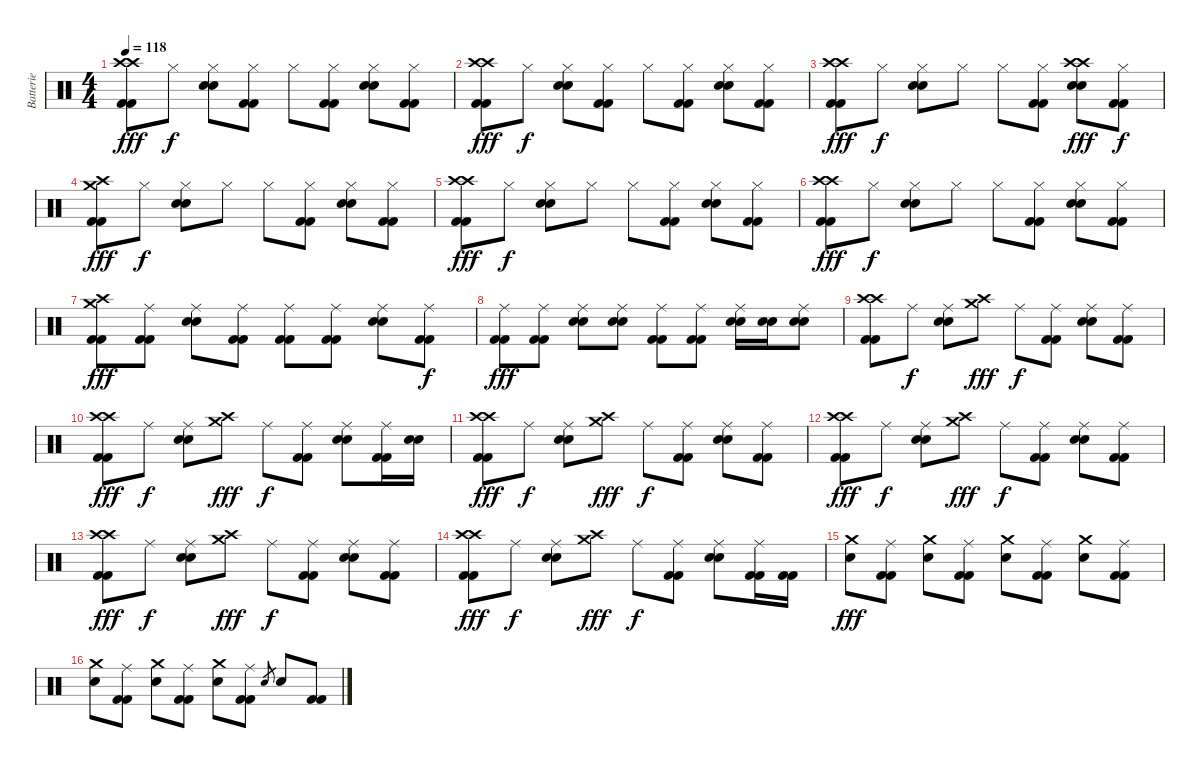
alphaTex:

\track ("Batterie" "Batterie") {instrument percussion}
\staff {score}
\articulation defaults
\ts (4 4)
\tempo 118
\clef neutral
\ks c
("Crash high (hit)" "Crash high (hit)" "Kick (hit) 2" "Kick (hit) 2").8{dy fff} "Hi-Hat (closed)".8{dy f} ("Hi-Hat (closed)" "Snare (hit) 2" "Snare (hit) 2").8 ("Hi-Hat (closed)" "Kick (hit) 2" "Kick (hit) 2").8 "Hi-Hat (closed)".8 ("Hi-Hat (closed)" "Kick (hit) 2" "Kick (hit) 2").8 ("Hi-Hat (closed)" "Snare (hit) 2" "Snare (hit) 2").8 ("Hi-Hat (closed)" "Kick (hit) 2" "Kick (hit) 2").8 |
("Crash high (hit)" "Crash high (hit)" "Kick (hit) 2" "Kick (hit) 2").8{dy fff} "Hi-Hat (closed)".8{dy f} ("Hi-Hat (closed)" "Snare (hit) 2" "Snare (hit) 2").8 ("Hi-Hat (closed)" "Kick (hit) 2" "Kick (hit) 2").8 "Hi-Hat (closed)".8 ("Hi-Hat (closed)" "Kick (hit) 2" "Kick (hit) 2").8 ("Hi-Hat (closed)" "Snare (hit) 2" "Snare (hit) 2").8 ("Hi-Hat (closed)" "Kick (hit) 2" "Kick (hit) 2").8 |
("Crash high (hit)" "Crash high (hit)" "Kick (hit) 2" "Kick (hit) 2").8{dy fff} "Hi-Hat (closed)".8{dy f} ("Hi-Hat (closed)" "Snare (hit) 2" "Snare (hit) 2").8 "Hi-Hat (closed)".8 "Hi-Hat (closed)".8 ("Hi-Hat (closed)" "Kick (hit) 2" "Kick (hit) 2").8 ("Crash high (hit)" "Crash high (hit)" "Snare (hit) 2" "Snare (hit) 2").8{dy fff} ("Hi-Hat (closed)" "Kick (hit) 2" "Kick (hit) 2").8{dy f} |
("Crash medium (hit)" "Crash high (hit)" "Kick (hit) 2" "Kick (hit) 2").8{dy fff} "Hi-Hat (closed)".8{dy f} ("Hi-Hat (closed)" "Snare (hit) 2" "Snare (hit) 2").8 "Hi-Hat (closed)".8 "Hi-Hat (closed)".8 ("Hi-Hat (closed)" "Kick (hit) 2" "Kick (hit) 2").8 ("Hi-Hat (closed)" "Snare (hit) 2" "Snare (hit) 2").8 ("Hi-Hat (closed)" "Kick (hit) 2" "Kick (hit) 2").8 |
("Crash high (hit)" "Crash high (hit)" "Kick (hit) 2" "Kick (hit) 2").8{dy fff} "Hi-Hat (closed)".8{dy f} ("Hi-Hat (closed)" "Snare (hit) 2" "Snare (hit) 2").8 "Hi-Hat (closed)".8 "Hi-Hat (closed)".8 ("Hi-Hat (closed)" "Kick (hit) 2" "Kick (hit) 2").8 ("Hi-Hat (closed)" "Snare (hit) 2" "Snare (hit) 2").8 ("Hi-Hat (closed)" "Kick (hit) 2" "Kick (hit) 2").8 |
("Crash high (hit)" "Crash high (hit)" "Kick (hit) 2" "Kick (hit) 2").8{dy fff} "Hi-Hat (closed)".8{dy f} ("Hi-Hat (closed)" "Snare (hit) 2" "Snare (hit) 2").8 "Hi-Hat (closed)".8 "Hi-Hat (closed)".8 ("Hi-Hat (closed)" "Kick (hit) 2" "Kick (hit) 2").8 ("Hi-Hat (closed)" "Snare (hit) 2" "Snare (hit) 2").8 ("Hi-Hat (closed)" "Kick (hit) 2" "Kick (hit) 2").8 |
("Crash high (hit)" "Crash medium (hit)" "Kick (hit) 2" "Kick (hit) 2").8{dy fff} ("Ride (middle)" "Kick (hit) 2" "Kick (hit) 2").8 ("Ride (middle)" "Snare (hit) 2" "Snare (hit) 2").8 ("Ride (middle)" "Kick (hit) 2" "Kick (hit) 2").8 ("Ride (middle)" "Kick (hit) 2" "Kick (hit) 2").8 ("Ride (middle)" "Kick (hit) 2" "Kick (hit) 2").8 ("Ride (middle)" "Snare (hit) 2" "Snare (hit) 2").8 ("Ride (middle)" "Kick (hit) 2" "Kick (hit) 2").8{dy f} |
("Ride (middle)" "Kick (hit) 2" "Kick (hit) 2").8{dy fff} ("Ride (middle)" "Kick (hit) 2" "Kick (hit) 2").8 ("Ride (middle)" "Snare (hit) 2" "Snare (hit) 2").8 ("Ride (middle)" "Snare (hit) 2" "Snare (hit) 2").8 ("Ride (middle)" "Kick (hit) 2" "Kick (hit) 2").8 ("Ride (middle)" "Kick (hit) 2" "Kick (hit) 2").8 ("Ride (middle)" "Snare (hit) 2" "Snare (hit) 2").16 ("Snare (hit) 2" "Snare (hit) 2").16 ("Ride (middle)" "Snare (hit) 2" "Snare (hit) 2").8 |
("Crash high (hit)" "Crash high (hit)" "Kick (hit) 2" "Kick (hit) 2").8 "Ride (middle)".8{dy f} ("Ride (middle)" "Snare (hit) 2" "Snare (hit) 2").8 ("Crash medium (hit)" "Crash high (hit)").8{dy fff} "Ride (middle)".8{dy f} ("Ride (middle)" "Kick (hit) 2" "Kick (hit) 2").8 ("Ride (middle)" "Snare (hit) 2" "Snare (hit) 2").8 ("Ride (middle)" "Kick (hit) 2" "Kick (hit) 2").8 |
("Crash high (hit)" "Crash high (hit)" "Kick (hit) 2" "Kick (hit) 2").8{dy fff} "Ride (middle)".8{dy f} ("Ride (middle)" "Snare (hit) 2" "Snare (hit) 2").8 ("Crash medium (hit)" "Crash high (hit)").8{dy fff} "Ride (middle)".8{dy f} ("Ride (middle)" "Kick (hit) 2" "Kick (hit) 2").8 ("Ride (middle)" "Snare (hit) 2" "Snare (hit) 2").8 ("Ride (middle)" "Kick (hit) 2" "Kick (hit) 2").16 ("Snare (hit) 2" "Snare (hit) 2").16 |
("Crash high (hit)" "Crash high (hit)" "Kick (hit) 2" "Kick (hit) 2").8{dy fff} "Ride (middle)".8{dy f} ("Ride (middle)" "Snare (hit) 2" "Snare (hit) 2").8 ("Crash medium (hit)" "Crash high (hit)").8{dy fff} "Ride (middle)".8{dy f} ("Ride (middle)" "Kick (hit) 2" "Kick (hit) 2").8 ("Ride (middle)" "Snare (hit) 2" "Snare (hit) 2").8 ("Ride (middle)" "Kick (hit) 2" "Kick (hit) 2").8 |
("Crash high (hit)" "Crash high (hit)" "Kick (hit) 2" "Kick (hit) 2").8{dy fff} "Ride (middle)".8{dy f} ("Ride (middle)" "Snare (hit) 2" "Snare (hit) 2").8 ("Crash medium (hit)" "Crash high (hit)").8{dy fff} "Ride (middle)".8{dy f} ("Ride (middle)" "Kick (hit) 2" "Kick (hit) 2").8 ("Ride (middle)" "Snare (hit) 2" "Snare (hit) 2").8 ("Ride (middle)" "Kick (hit) 2" "Kick (hit) 2").8 |
("Crash high (hit)" "Crash high (hit)" "Kick (hit) 2" "Kick (hit) 2").8{dy fff} "Ride (middle)".8{dy f} ("Ride (middle)" "Snare (hit) 2" "Snare (hit) 2").8 ("Crash medium (hit)" "Crash high (hit)").8{dy fff} "Ride (middle)".8{dy f} ("Ride (middle)" "Kick (hit) 2" "Kick (hit) 2").8 ("Ride (middle)" "Snare (hit) 2" "Snare (hit) 2").8 ("Ride (middle)" "Kick (hit) 2" "Kick (hit) 2").8 |
("Crash high (hit)" "Crash high (hit)" "Kick (hit) 2" "Kick (hit) 2").8{dy fff} "Ride (middle)".8{dy f} ("Ride (middle)" "Snare (hit) 2" "Snare (hit) 2").8 ("Crash medium (hit)" "Crash high (hit)").8{dy fff} "Ride (middle)".8{dy f} ("Ride (middle)" "Kick (hit) 2" "Kick (hit) 2").8 ("Ride (middle)" "Snare (hit) 2" "Snare (hit) 2").8 ("Ride (middle)" "Kick (hit) 2" "Kick (hit) 2").16 ("Kick (hit) 2" "Kick (hit) 2").16 |
("Crash medium (hit)" "Snare (hit) 2").8{dy fff} ("Ride (middle)" "Kick (hit) 2" "Kick (hit) 2").8 ("Crash medium (hit)" "Snare (hit) 2").8 ("Ride (middle)" "Kick (hit) 2" "Kick (hit) 2").8 ("Crash medium (hit)" "Snare (hit) 2").8 ("Ride (middle)" "Kick (hit) 2" "Kick (hit) 2").8 ("Crash medium (hit)" "Snare (hit) 2").8 ("Ride (middle)" "Kick (hit) 2" "Kick (hit) 2").8 |
("Crash medium (hit)" "Snare (hit) 2").8 ("Ride (middle)" "Kick (hit) 2" "Kick (hit) 2").8 ("Crash medium (hit)" "Snare (hit) 2").8 ("Ride (middle)" "Kick (hit) 2" "Kick (hit) 2").8 ("Crash medium (hit)" "Snare (hit) 2").8 ("Ride (middle)" "Kick (hit) 2" "Kick (hit) 2").8 "Snare (hit) 2".8{gr} "Snare (hit) 2".8 ("Kick (hit) 2" "Kick (hit) 2").8
